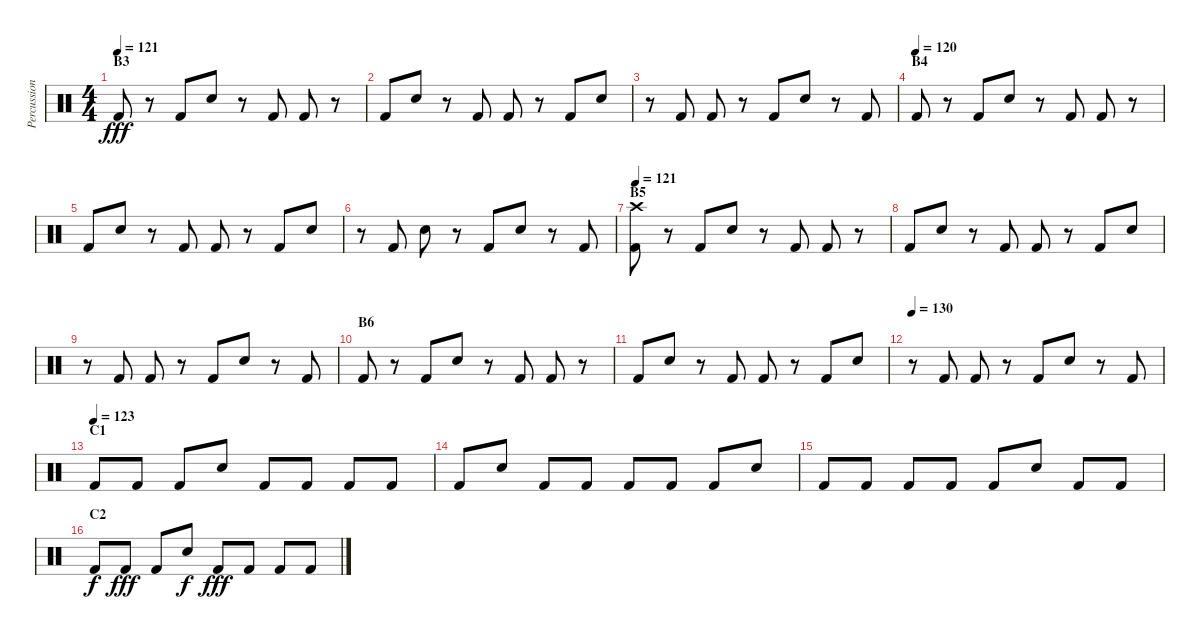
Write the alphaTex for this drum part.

\track ("Percussion" "Percussion") {instrument percussion}
\staff {score}
\articulation defaults
\ts (4 4)
\section ("" "B3")
\tempo 121
\clef neutral
\ks c "Kick (hit) 2".8{dy fff}
r.8 "Kick (hit) 2".8 "Electric Snare (hit)".8 r.8 "Kick (hit) 2".8 "Kick (hit) 2".8 r.8 |
"Kick (hit) 2".8 "Electric Snare (hit)".8 r.8 "Kick (hit) 2".8 "Kick (hit) 2".8 r.8 "Kick (hit) 2".8 "Electric Snare (hit)".8 |
r.8 "Kick (hit) 2".8 "Kick (hit) 2".8 r.8 "Kick (hit) 2".8 "Electric Snare (hit)".8 r.8 "Kick (hit) 2".8 |
\section ("" "B4")
\tempo (120)
"Kick (hit) 2".8 r.8 "Kick (hit) 2".8 "Electric Snare (hit)".8 r.8 "Kick (hit) 2".8 "Kick (hit) 2".8 r.8 |
"Kick (hit) 2".8 "Electric Snare (hit)".8 r.8 "Kick (hit) 2".8 "Kick (hit) 2".8 r.8 "Kick (hit) 2".8 "Electric Snare (hit)".8 |
r.8 "Kick (hit) 2".8 "Electric Snare (hit)".8 r.8 "Kick (hit) 2".8 "Electric Snare (hit)".8 r.8 "Kick (hit) 2".8 |
\section ("" "B5")
\tempo 121
("Kick (hit) 2" "Crash high (hit)").8 r.8 "Kick (hit) 2".8 "Electric Snare (hit)".8 r.8 "Kick (hit) 2".8 "Kick (hit) 2".8 r.8 |
"Kick (hit) 2".8 "Electric Snare (hit)".8 r.8 "Kick (hit) 2".8 "Kick (hit) 2".8 r.8 "Kick (hit) 2".8 "Electric Snare (hit)".8 |
r.8 "Kick (hit) 2".8 "Kick (hit) 2".8 r.8 "Kick (hit) 2".8 "Electric Snare (hit)".8 r.8 "Kick (hit) 2".8 |
\section ("" "B6")
"Kick (hit) 2".8 r.8 "Kick (hit) 2".8 "Electric Snare (hit)".8 r.8 "Kick (hit) 2".8 "Kick (hit) 2".8 r.8 |
"Kick (hit) 2".8 "Electric Snare (hit)".8 r.8 "Kick (hit) 2".8 "Kick (hit) 2".8 r.8 "Kick (hit) 2".8 "Electric Snare (hit)".8 |
\tempo 130
r.8 "Kick (hit) 2".8 "Kick (hit) 2".8 r.8 "Kick (hit) 2".8 "Electric Snare (hit)".8 r.8 "Kick (hit) 2".8 |
\section ("" "C1")
\tempo (123)
"Kick (hit) 2".8 "Kick (hit) 2".8 "Kick (hit) 2".8 "Electric Snare (hit)".8 "Kick (hit) 2".8 "Kick (hit) 2".8 "Kick (hit) 2".8 "Kick (hit) 2".8 |
"Kick (hit) 2".8 "Electric Snare (hit)".8 "Kick (hit) 2".8 "Kick (hit) 2".8 "Kick (hit) 2".8 "Kick (hit) 2".8 "Kick (hit) 2".8 "Electric Snare (hit)".8 |
"Kick (hit) 2".8 "Kick (hit) 2".8 "Kick (hit) 2".8 "Kick (hit) 2".8 "Kick (hit) 2".8 "Electric Snare (hit)".8 "Kick (hit) 2".8 "Kick (hit) 2".8 |
\section ("" "C2")
"Kick (hit) 2".8{dy f} "Kick (hit) 2".8{dy fff} "Kick (hit) 2".8 "Electric Snare (hit)".8{dy f} "Kick (hit) 2".8{dy fff} "Kick (hit) 2".8 "Kick (hit) 2".8 "Kick (hit) 2".8
